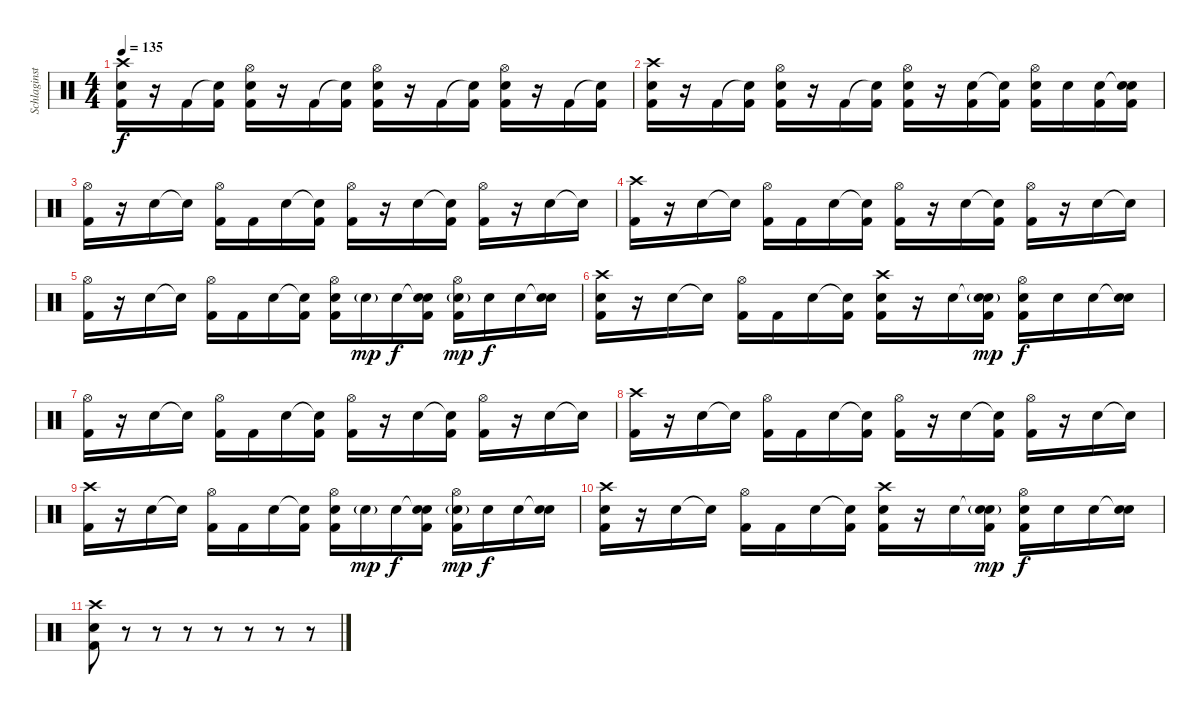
\track ("Schlaginstrumente - Auswahl" "Schlaginst") {instrument percussion}
\staff {score}
\articulation defaults
\ts (4 4)
\tempo 135
\clef neutral
\ks c
("Crash high (hit)" "Snare (hit) 2" "Kick (hit) 2").16{dy f} r.16 "Kick (hit) 2".16 ("Snare (hit)"{t} "Kick (hit) 2").16 ("Hi-Hat (open)" "Snare (hit) 2" "Kick (hit) 2").16 r.16 "Kick (hit) 2".16 ("Snare (hit)"{t} "Kick (hit) 2").16 ("Hi-Hat (open)" "Snare (hit) 2" "Kick (hit) 2").16 r.16 "Kick (hit) 2".16 ("Snare (hit)"{t} "Kick (hit) 2").16 ("Hi-Hat (open)" "Snare (hit) 2" "Kick (hit) 2").16 r.16 "Kick (hit) 2".16 ("Snare (hit)"{t} "Kick (hit) 2").16 |
("Crash high (hit)" "Snare (hit) 2" "Kick (hit) 2").16 r.16 "Kick (hit) 2".16 ("Snare (hit)"{t} "Kick (hit) 2").16 ("Hi-Hat (open)" "Snare (hit) 2" "Kick (hit) 2").16 r.16 "Kick (hit) 2".16 ("Snare (hit)"{t} "Kick (hit) 2").16 ("Hi-Hat (open)" "Snare (hit) 2" "Kick (hit) 2").16 r.16 ("Snare (hit) 2" "Kick (hit) 2").16 ("Snare (hit)"{t} "Kick (hit) 2").16 ("Hi-Hat (open)" "Snare (hit) 2" "Kick (hit) 2").16 "Snare (hit) 2".16 ("Snare (hit) 2" "Kick (hit) 2").16 ("Snare (hit)"{t} "Snare (hit) 2" "Kick (hit) 2").16 |
("Hi-Hat (open)" "Kick (hit) 2").16 r.16 "Snare (hit) 2".16 "Snare (hit)"{t}.16 ("Hi-Hat (open)" "Kick (hit) 2").16 "Kick (hit) 2".16 "Snare (hit) 2".16 ("Snare (hit)"{t} "Kick (hit) 2").16 ("Hi-Hat (open)" "Kick (hit) 2").16 r.16 "Snare (hit) 2".16 ("Snare (hit)"{t} "Kick (hit) 2").16 ("Hi-Hat (open)" "Kick (hit) 2").16 r.16 "Snare (hit) 2".16 "Snare (hit)"{t}.16 |
("Crash high (hit)" "Kick (hit) 2").16 r.16 "Snare (hit) 2".16 "Snare (hit)"{t}.16 ("Hi-Hat (open)" "Kick (hit) 2").16 "Kick (hit) 2".16 "Snare (hit) 2".16 ("Snare (hit)"{t} "Kick (hit) 2").16 ("Hi-Hat (open)" "Kick (hit) 2").16 r.16 "Snare (hit) 2".16 ("Snare (hit)"{t} "Kick (hit) 2").16 ("Hi-Hat (open)" "Kick (hit) 2").16 r.16 "Snare (hit) 2".16 "Snare (hit)"{t}.16 |
("Hi-Hat (open)" "Kick (hit) 2").16 r.16 "Snare (hit) 2".16 "Snare (hit)"{t}.16 ("Hi-Hat (open)" "Kick (hit) 2").16 "Kick (hit) 2".16 "Snare (hit) 2".16 ("Snare (hit)"{t} "Kick (hit) 2").16 ("Hi-Hat (open)" "Snare (hit) 2" "Kick (hit) 2").16 "Snare (hit) 2"{g}.16{dy mp} "Snare (hit) 2".16{dy f} ("Snare (hit)"{t} "Snare (hit) 2" "Kick (hit) 2").16 ("Hi-Hat (open)" "Snare (hit) 2"{g} "Kick (hit) 2").16{dy mp} "Snare (hit) 2".16{dy f} "Snare (hit) 2".16 ("Snare (hit)"{t} "Snare (hit) 2").16 |
("Crash high (hit)" "Snare (hit) 2" "Kick (hit) 2").16 r.16 "Snare (hit) 2".16 "Snare (hit)"{t}.16 ("Hi-Hat (open)" "Kick (hit) 2").16 "Kick (hit) 2".16 "Snare (hit) 2".16 ("Snare (hit)"{t} "Kick (hit) 2").16 ("Crash high (hit)" "Snare (hit) 2" "Kick (hit) 2").16 r.16 "Snare (hit) 2".16 ("Snare (hit)"{t} "Snare (hit) 2"{g} "Kick (hit) 2").16{dy mp} ("Hi-Hat (open)" "Snare (hit) 2" "Kick (hit) 2").16{dy f} "Snare (hit) 2".16 "Snare (hit) 2".16 ("Snare (hit)"{t} "Snare (hit) 2").16 |
("Hi-Hat (open)" "Kick (hit) 2").16 r.16 "Snare (hit) 2".16 "Snare (hit)"{t}.16 ("Hi-Hat (open)" "Kick (hit) 2").16 "Kick (hit) 2".16 "Snare (hit) 2".16 ("Snare (hit)"{t} "Kick (hit) 2").16 ("Hi-Hat (open)" "Kick (hit) 2").16 r.16 "Snare (hit) 2".16 ("Snare (hit)"{t} "Kick (hit) 2").16 ("Hi-Hat (open)" "Kick (hit) 2").16 r.16 "Snare (hit) 2".16 "Snare (hit)"{t}.16 |
("Crash high (hit)" "Kick (hit) 2").16 r.16 "Snare (hit) 2".16 "Snare (hit)"{t}.16 ("Hi-Hat (open)" "Kick (hit) 2").16 "Kick (hit) 2".16 "Snare (hit) 2".16 ("Snare (hit)"{t} "Kick (hit) 2").16 ("Hi-Hat (open)" "Kick (hit) 2").16 r.16 "Snare (hit) 2".16 ("Snare (hit)"{t} "Kick (hit) 2").16 ("Hi-Hat (open)" "Kick (hit) 2").16 r.16 "Snare (hit) 2".16 "Snare (hit)"{t}.16 |
("Crash high (hit)" "Kick (hit) 2").16 r.16 "Snare (hit) 2".16 "Snare (hit)"{t}.16 ("Hi-Hat (open)" "Kick (hit) 2").16 "Kick (hit) 2".16 "Snare (hit) 2".16 ("Snare (hit)"{t} "Kick (hit) 2").16 ("Hi-Hat (open)" "Snare (hit) 2" "Kick (hit) 2").16 "Snare (hit) 2"{g}.16{dy mp} "Snare (hit) 2".16{dy f} ("Snare (hit)"{t} "Snare (hit) 2" "Kick (hit) 2").16 ("Hi-Hat (open)" "Snare (hit) 2"{g} "Kick (hit) 2").16{dy mp} "Snare (hit) 2".16{dy f} "Snare (hit) 2".16 ("Snare (hit)"{t} "Snare (hit) 2").16 |
("Crash high (hit)" "Snare (hit) 2" "Kick (hit) 2").16 r.16 "Snare (hit) 2".16 "Snare (hit)"{t}.16 ("Hi-Hat (open)" "Kick (hit) 2").16 "Kick (hit) 2".16 "Snare (hit) 2".16 ("Snare (hit)"{t} "Kick (hit) 2").16 ("Crash high (hit)" "Snare (hit) 2" "Kick (hit) 2").16 r.16 "Snare (hit) 2".16 ("Snare (hit)"{t} "Snare (hit) 2"{g} "Kick (hit) 2").16{dy mp} ("Hi-Hat (open)" "Snare (hit) 2" "Kick (hit) 2").16{dy f} "Snare (hit) 2".16 "Snare (hit) 2".16 ("Snare (hit)"{t} "Snare (hit) 2").16 |
("Crash high (hit)" "Snare (hit) 2" "Kick (hit) 2").8 r.8 r.8 r.8 r.8 r.8 r.8 r.8
